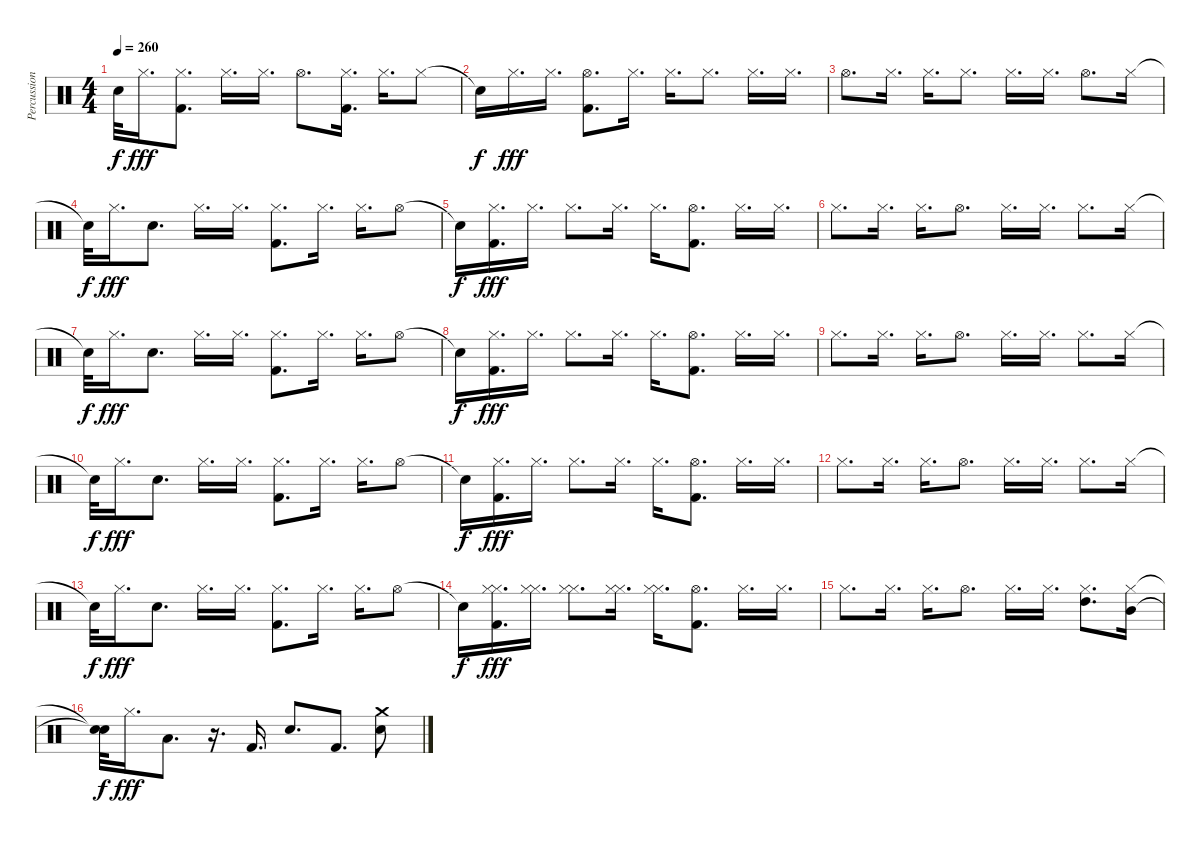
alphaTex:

\track ("Percussion" "Percussion") {instrument percussion}
\staff {score}
\articulation defaults
\ts (4 4)
\tempo 260
\clef neutral
\ks c "Snare (hit)"{t}.32{dy f} "Hi-Hat (closed)".16{d dy fff}
("Hi-Hat (closed)" "Kick (hit) 2").8{d} "Hi-Hat (closed)".16{d} "Hi-Hat (closed)".16{d} "Hi-Hat (open)".8{d} ("Hi-Hat (closed)" "Kick (hit) 2").16{d} "Hi-Hat (closed)".16{d} "Hi-Hat (closed)".8 |
"Snare (hit)"{t}.16{dy f} "Hi-Hat (closed)".16{d dy fff} "Hi-Hat (closed)".16{d} ("Hi-Hat (open)" "Kick (hit) 2").8{d} "Hi-Hat (closed)".16{d} "Hi-Hat (closed)".16{d} "Hi-Hat (closed)".8{d} "Hi-Hat (closed)".16{d} "Hi-Hat (closed)".16{d} |
"Hi-Hat (open)".8{d} "Hi-Hat (closed)".16{d} "Hi-Hat (closed)".16{d} "Hi-Hat (closed)".8{d} "Hi-Hat (closed)".16{d} "Hi-Hat (closed)".16{d} "Hi-Hat (open)".8{d} "Hi-Hat (closed)".16 |
"Snare (hit)"{t}.32{dy f} "Hi-Hat (closed)".16{d dy fff} "Electric Snare (hit)".8{d} "Hi-Hat (closed)".16{d} "Hi-Hat (closed)".16{d} ("Hi-Hat (closed)" "Kick (hit) 2").8{d} "Hi-Hat (closed)".16{d} "Hi-Hat (closed)".16{d} "Hi-Hat (open)".8 |
"Snare (hit)"{t}.16{dy f} ("Hi-Hat (closed)" "Kick (hit) 2").16{d dy fff} "Hi-Hat (closed)".16{d} "Hi-Hat (closed)".8{d} "Hi-Hat (closed)".16{d} "Hi-Hat (closed)".16{d} ("Hi-Hat (open)" "Kick (hit) 2").8{d} "Hi-Hat (closed)".16{d} "Hi-Hat (closed)".16{d} |
"Hi-Hat (closed)".8{d} "Hi-Hat (closed)".16{d} "Hi-Hat (closed)".16{d} "Hi-Hat (open)".8{d} "Hi-Hat (closed)".16{d} "Hi-Hat (closed)".16{d} "Hi-Hat (closed)".8{d} "Hi-Hat (closed)".16 |
"Snare (hit)"{t}.32{dy f} "Hi-Hat (closed)".16{d dy fff} "Electric Snare (hit)".8{d} "Hi-Hat (closed)".16{d} "Hi-Hat (closed)".16{d} ("Hi-Hat (closed)" "Kick (hit) 2").8{d} "Hi-Hat (closed)".16{d} "Hi-Hat (closed)".16{d} "Hi-Hat (open)".8 |
"Snare (hit)"{t}.16{dy f} ("Hi-Hat (closed)" "Kick (hit) 2").16{d dy fff} "Hi-Hat (closed)".16{d} "Hi-Hat (closed)".8{d} "Hi-Hat (closed)".16{d} "Hi-Hat (closed)".16{d} ("Hi-Hat (open)" "Kick (hit) 2").8{d} "Hi-Hat (closed)".16{d} "Hi-Hat (closed)".16{d} |
"Hi-Hat (closed)".8{d} "Hi-Hat (closed)".16{d} "Hi-Hat (closed)".16{d} "Hi-Hat (open)".8{d} "Hi-Hat (closed)".16{d} "Hi-Hat (closed)".16{d} "Hi-Hat (closed)".8{d} "Hi-Hat (closed)".16 |
"Snare (hit)"{t}.32{dy f} "Hi-Hat (closed)".16{d dy fff} "Electric Snare (hit)".8{d} "Hi-Hat (closed)".16{d} "Hi-Hat (closed)".16{d} ("Hi-Hat (closed)" "Kick (hit) 2").8{d} "Hi-Hat (closed)".16{d} "Hi-Hat (closed)".16{d} "Hi-Hat (open)".8 |
"Snare (hit)"{t}.16{dy f} ("Hi-Hat (closed)" "Kick (hit) 2").16{d dy fff} "Hi-Hat (closed)".16{d} "Hi-Hat (closed)".8{d} "Hi-Hat (closed)".16{d} "Hi-Hat (closed)".16{d} ("Hi-Hat (open)" "Kick (hit) 2").8{d} "Hi-Hat (closed)".16{d} "Hi-Hat (closed)".16{d} |
"Hi-Hat (closed)".8{d} "Hi-Hat (closed)".16{d} "Hi-Hat (closed)".16{d} "Hi-Hat (open)".8{d} "Hi-Hat (closed)".16{d} "Hi-Hat (closed)".16{d} "Hi-Hat (closed)".8{d} "Hi-Hat (closed)".16 |
"Snare (hit)"{t}.32{dy f} "Hi-Hat (closed)".16{d dy fff} "Electric Snare (hit)".8{d} "Hi-Hat (closed)".16{d} "Hi-Hat (closed)".16{d} ("Hi-Hat (closed)" "Kick (hit) 2").8{d} "Hi-Hat (closed)".16{d} "Hi-Hat (closed)".16{d} "Hi-Hat (open)".8 |
"Snare (hit)"{t}.16{dy f} ("Hi-Hat (closed)" "Hi-Hat (closed)" "Kick (hit) 2").16{d dy fff} ("Hi-Hat (closed)" "Hi-Hat (closed)").16{d} ("Hi-Hat (closed)" "Hi-Hat (closed)").8{d} ("Hi-Hat (closed)" "Hi-Hat (closed)").16{d} ("Hi-Hat (closed)" "Hi-Hat (closed)").16{d} ("Hi-Hat (open)" "Kick (hit) 2").8{d} "Hi-Hat (closed)".16{d} "Hi-Hat (closed)".16{d} |
"Hi-Hat (closed)".8{d} "Hi-Hat (closed)".16{d} "Hi-Hat (closed)".16{d} "Hi-Hat (open)".8{d} "Hi-Hat (closed)".16{d} "Hi-Hat (closed)".16{d} ("Hi-Hat (closed)" "High Tom (hit)").8{d} ("Hi-Hat (closed)" "Mid Tom (hit)").16 |
("Snare (hit)"{t} "Snare (hit)"{t}).32{dy f} "Hi-Hat (closed)".16{d dy fff} "Low Tom (hit)".8{d} r.16{d} "Kick (hit) 2".16{d} "Electric Snare (hit)".8{d} "Kick (hit) 2".8{d} ("Electric Snare (hit)" "Crash medium (hit)").8
